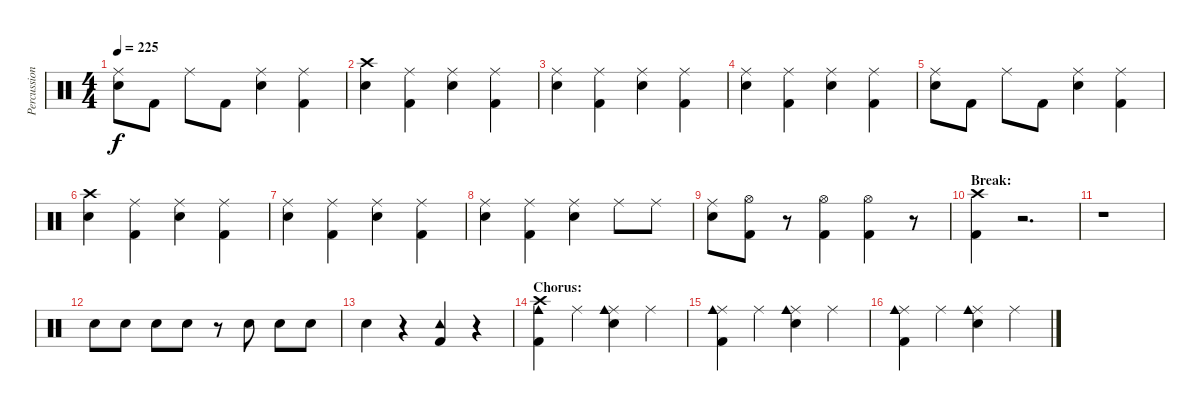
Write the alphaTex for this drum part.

\track ("Percussion" "Percussion") {instrument percussion}
\staff {score}
\articulation defaults
\ts (4 4)
\tempo 225
\clef neutral
\ks c
("Ride (middle)" "Electric Snare (hit)").8{dy f} "Kick (hit) 2".8 "Ride (middle)".8 "Kick (hit) 2".8 ("Ride (middle)" "Electric Snare (hit)").4 ("Ride (middle)" "Kick (hit) 2").4 |
("Crash high (hit)" "Electric Snare (hit)").4 ("Ride (middle)" "Kick (hit) 2").4 ("Ride (middle)" "Electric Snare (hit)").4 ("Ride (middle)" "Kick (hit) 2").4 |
("Ride (middle)" "Electric Snare (hit)").4 ("Ride (middle)" "Kick (hit) 2").4 ("Ride (middle)" "Electric Snare (hit)").4 ("Ride (middle)" "Kick (hit) 2").4 |
("Ride (middle)" "Electric Snare (hit)").4 ("Ride (middle)" "Kick (hit) 2").4 ("Ride (middle)" "Electric Snare (hit)").4 ("Ride (middle)" "Kick (hit) 2").4 |
("Ride (middle)" "Electric Snare (hit)").8 "Kick (hit) 2".8 "Ride (middle)".8 "Kick (hit) 2".8 ("Ride (middle)" "Electric Snare (hit)").4 ("Ride (middle)" "Kick (hit) 2").4 |
("Crash high (hit)" "Electric Snare (hit)").4 ("Ride (middle)" "Kick (hit) 2").4 ("Ride (middle)" "Electric Snare (hit)").4 ("Ride (middle)" "Kick (hit) 2").4 |
("Ride (middle)" "Electric Snare (hit)").4 ("Ride (middle)" "Kick (hit) 2").4 ("Ride (middle)" "Electric Snare (hit)").4 ("Ride (middle)" "Kick (hit) 2").4 |
("Ride (middle)" "Electric Snare (hit)").4 ("Ride (middle)" "Kick (hit) 2").4 ("Ride (middle)" "Electric Snare (hit)").4 "Ride (middle)".8 "Ride (middle)".8 |
("Ride (middle)" "Electric Snare (hit)").8 ("Hi-Hat (open)" "Kick (hit) 2").8 r.8 ("Hi-Hat (open)" "Kick (hit) 2").4 ("Hi-Hat (open)" "Kick (hit) 2").4 r.8 |
\section ("" "Break:")
("Crash high (hit)" "Kick (hit) 2").4 r.2{d} |
r.1 |
"Electric Snare (hit)".8 "Electric Snare (hit)".8 "Electric Snare (hit)".8 "Electric Snare (hit)".8 r.8 "Electric Snare (hit)".8 "Electric Snare (hit)".8 "Electric Snare (hit)".8 |
"Electric Snare (hit)".4 r.4 ("Tambourine (hit)" "Kick (hit) 2").4 r.4 |
\section ("" "Chorus:")
("Crash high (hit)" "Cowbell medium (hit)" "Kick (hit) 2").4 "Ride (middle)".4 ("Ride (middle)" "Cowbell medium (hit)" "Electric Snare (hit)").4 "Ride (middle)".4 |
("Ride (middle)" "Cowbell medium (hit)" "Kick (hit) 2").4 "Ride (middle)".4 ("Ride (middle)" "Cowbell medium (hit)" "Electric Snare (hit)").4 "Ride (middle)".4 |
("Ride (middle)" "Cowbell medium (hit)" "Kick (hit) 2").4 "Ride (middle)".4 ("Ride (middle)" "Cowbell medium (hit)" "Electric Snare (hit)").4 "Ride (middle)".4
